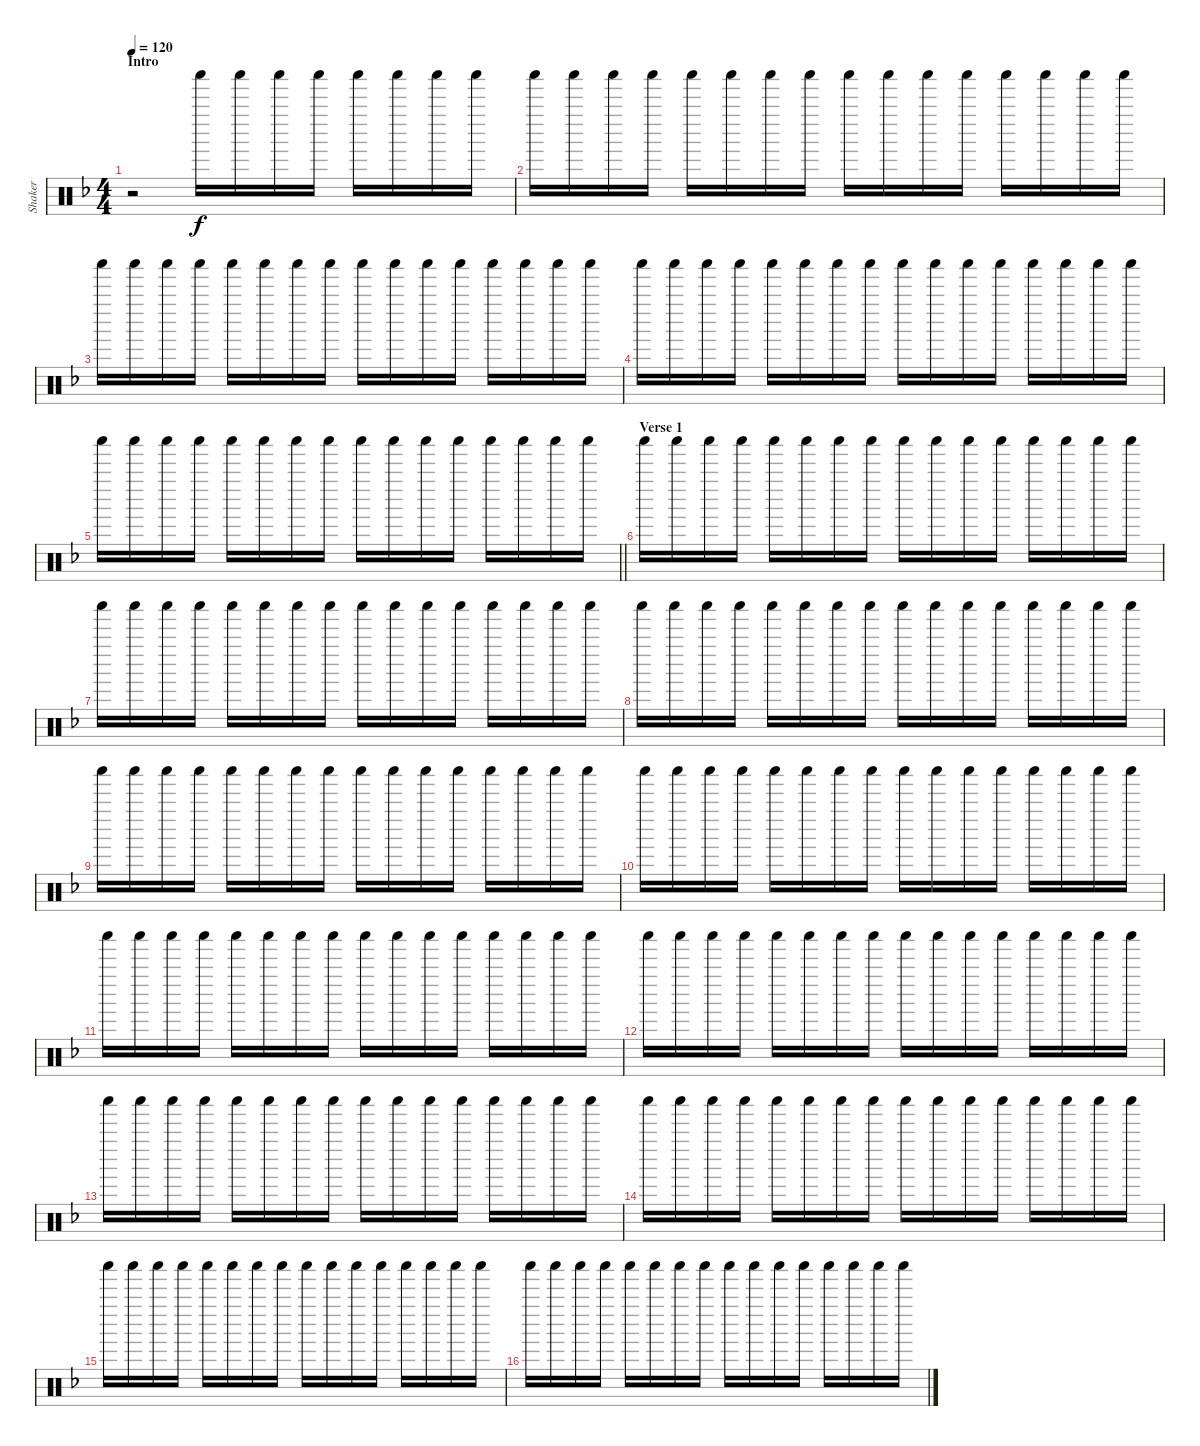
\track ("Shaker" "Shaker") {instrument percussion}
\staff {score}
\articulation defaults
\ts (4 4)
\section ("" "Intro")
\tempo 120
\clef neutral
\ks f
r.2{dy f} "Shaker (hit)".16 "Shaker (hit)".16 "Shaker (hit)".16 "Shaker (hit)".16 "Shaker (hit)".16 "Shaker (hit)".16 "Shaker (hit)".16 "Shaker (hit)".16 |
"Shaker (hit)".16 "Shaker (hit)".16 "Shaker (hit)".16 "Shaker (hit)".16 "Shaker (hit)".16 "Shaker (hit)".16 "Shaker (hit)".16 "Shaker (hit)".16 "Shaker (hit)".16 "Shaker (hit)".16 "Shaker (hit)".16 "Shaker (hit)".16 "Shaker (hit)".16 "Shaker (hit)".16 "Shaker (hit)".16 "Shaker (hit)".16 |
"Shaker (hit)".16 "Shaker (hit)".16 "Shaker (hit)".16 "Shaker (hit)".16 "Shaker (hit)".16 "Shaker (hit)".16 "Shaker (hit)".16 "Shaker (hit)".16 "Shaker (hit)".16 "Shaker (hit)".16 "Shaker (hit)".16 "Shaker (hit)".16 "Shaker (hit)".16 "Shaker (hit)".16 "Shaker (hit)".16 "Shaker (hit)".16 |
"Shaker (hit)".16 "Shaker (hit)".16 "Shaker (hit)".16 "Shaker (hit)".16 "Shaker (hit)".16 "Shaker (hit)".16 "Shaker (hit)".16 "Shaker (hit)".16 "Shaker (hit)".16 "Shaker (hit)".16 "Shaker (hit)".16 "Shaker (hit)".16 "Shaker (hit)".16 "Shaker (hit)".16 "Shaker (hit)".16 "Shaker (hit)".16 |
\barLineRight lightlight "Shaker (hit)".16 "Shaker (hit)".16 "Shaker (hit)".16 "Shaker (hit)".16 "Shaker (hit)".16 "Shaker (hit)".16 "Shaker (hit)".16 "Shaker (hit)".16 "Shaker (hit)".16 "Shaker (hit)".16 "Shaker (hit)".16 "Shaker (hit)".16 "Shaker (hit)".16 "Shaker (hit)".16 "Shaker (hit)".16 "Shaker (hit)".16
|
\section ("" "Verse 1")
"Shaker (hit)".16 "Shaker (hit)".16 "Shaker (hit)".16 "Shaker (hit)".16 "Shaker (hit)".16 "Shaker (hit)".16 "Shaker (hit)".16 "Shaker (hit)".16 "Shaker (hit)".16 "Shaker (hit)".16 "Shaker (hit)".16 "Shaker (hit)".16 "Shaker (hit)".16 "Shaker (hit)".16 "Shaker (hit)".16 "Shaker (hit)".16 |
"Shaker (hit)".16 "Shaker (hit)".16 "Shaker (hit)".16 "Shaker (hit)".16 "Shaker (hit)".16 "Shaker (hit)".16 "Shaker (hit)".16 "Shaker (hit)".16 "Shaker (hit)".16 "Shaker (hit)".16 "Shaker (hit)".16 "Shaker (hit)".16 "Shaker (hit)".16 "Shaker (hit)".16 "Shaker (hit)".16 "Shaker (hit)".16 |
"Shaker (hit)".16 "Shaker (hit)".16 "Shaker (hit)".16 "Shaker (hit)".16 "Shaker (hit)".16 "Shaker (hit)".16 "Shaker (hit)".16 "Shaker (hit)".16 "Shaker (hit)".16 "Shaker (hit)".16 "Shaker (hit)".16 "Shaker (hit)".16 "Shaker (hit)".16 "Shaker (hit)".16 "Shaker (hit)".16 "Shaker (hit)".16 |
"Shaker (hit)".16 "Shaker (hit)".16 "Shaker (hit)".16 "Shaker (hit)".16 "Shaker (hit)".16 "Shaker (hit)".16 "Shaker (hit)".16 "Shaker (hit)".16 "Shaker (hit)".16 "Shaker (hit)".16 "Shaker (hit)".16 "Shaker (hit)".16 "Shaker (hit)".16 "Shaker (hit)".16 "Shaker (hit)".16 "Shaker (hit)".16 |
"Shaker (hit)".16 "Shaker (hit)".16 "Shaker (hit)".16 "Shaker (hit)".16 "Shaker (hit)".16 "Shaker (hit)".16 "Shaker (hit)".16 "Shaker (hit)".16 "Shaker (hit)".16 "Shaker (hit)".16 "Shaker (hit)".16 "Shaker (hit)".16 "Shaker (hit)".16 "Shaker (hit)".16 "Shaker (hit)".16 "Shaker (hit)".16 |
"Shaker (hit)".16 "Shaker (hit)".16 "Shaker (hit)".16 "Shaker (hit)".16 "Shaker (hit)".16 "Shaker (hit)".16 "Shaker (hit)".16 "Shaker (hit)".16 "Shaker (hit)".16 "Shaker (hit)".16 "Shaker (hit)".16 "Shaker (hit)".16 "Shaker (hit)".16 "Shaker (hit)".16 "Shaker (hit)".16 "Shaker (hit)".16 |
"Shaker (hit)".16 "Shaker (hit)".16 "Shaker (hit)".16 "Shaker (hit)".16 "Shaker (hit)".16 "Shaker (hit)".16 "Shaker (hit)".16 "Shaker (hit)".16 "Shaker (hit)".16 "Shaker (hit)".16 "Shaker (hit)".16 "Shaker (hit)".16 "Shaker (hit)".16 "Shaker (hit)".16 "Shaker (hit)".16 "Shaker (hit)".16 |
"Shaker (hit)".16 "Shaker (hit)".16 "Shaker (hit)".16 "Shaker (hit)".16 "Shaker (hit)".16 "Shaker (hit)".16 "Shaker (hit)".16 "Shaker (hit)".16 "Shaker (hit)".16 "Shaker (hit)".16 "Shaker (hit)".16 "Shaker (hit)".16 "Shaker (hit)".16 "Shaker (hit)".16 "Shaker (hit)".16 "Shaker (hit)".16 |
"Shaker (hit)".16 "Shaker (hit)".16 "Shaker (hit)".16 "Shaker (hit)".16 "Shaker (hit)".16 "Shaker (hit)".16 "Shaker (hit)".16 "Shaker (hit)".16 "Shaker (hit)".16 "Shaker (hit)".16 "Shaker (hit)".16 "Shaker (hit)".16 "Shaker (hit)".16 "Shaker (hit)".16 "Shaker (hit)".16 "Shaker (hit)".16 |
"Shaker (hit)".16 "Shaker (hit)".16 "Shaker (hit)".16 "Shaker (hit)".16 "Shaker (hit)".16 "Shaker (hit)".16 "Shaker (hit)".16 "Shaker (hit)".16 "Shaker (hit)".16 "Shaker (hit)".16 "Shaker (hit)".16 "Shaker (hit)".16 "Shaker (hit)".16 "Shaker (hit)".16 "Shaker (hit)".16 "Shaker (hit)".16 |
"Shaker (hit)".16 "Shaker (hit)".16 "Shaker (hit)".16 "Shaker (hit)".16 "Shaker (hit)".16 "Shaker (hit)".16 "Shaker (hit)".16 "Shaker (hit)".16 "Shaker (hit)".16 "Shaker (hit)".16 "Shaker (hit)".16 "Shaker (hit)".16 "Shaker (hit)".16 "Shaker (hit)".16 "Shaker (hit)".16 "Shaker (hit)".16
